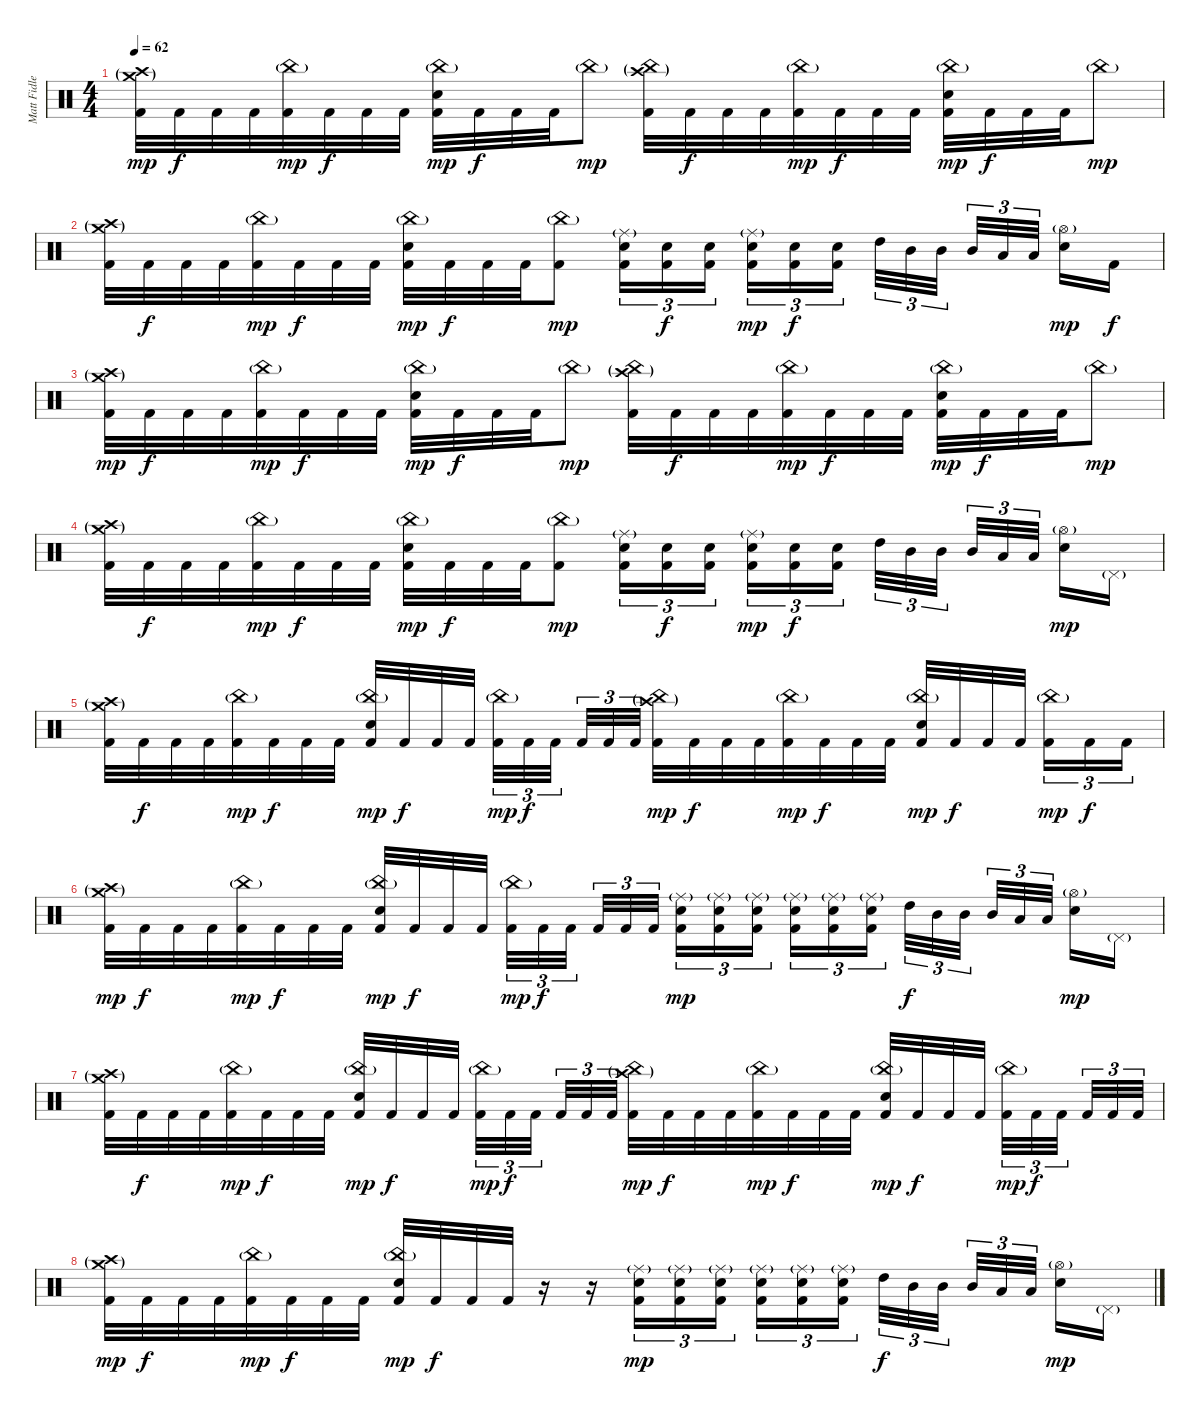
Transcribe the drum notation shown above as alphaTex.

\track ("Matt Fidler---Drums" "Matt Fidle") {instrument percussion}
\staff {score}
\articulation defaults
\ts (4 4)
\tempo 62
\clef neutral
\ks c
("Crash medium (hit)"{g} "Crash high (hit)"{g} "Kick (hit) 2").32{dy mp volume 16} "Kick (hit) 2".32{dy f} "Kick (hit) 2".32 "Kick (hit) 2".32 ("China (hit)"{g} "Kick (hit) 2").32{dy mp} "Kick (hit) 2".32{dy f} "Kick (hit) 2".32 "Kick (hit) 2".32 ("China (hit)"{g} "Electric Snare (hit)" "Kick (hit) 2").32{dy mp} "Kick (hit) 2".32{dy f} "Kick (hit) 2".32 "Kick (hit) 2".32 "China (hit)"{g}.8{dy mp} ("China (hit)"{g} "Crash high (hit)"{g} "Kick (hit) 2").32 "Kick (hit) 2".32{dy f} "Kick (hit) 2".32 "Kick (hit) 2".32 ("China (hit)"{g} "Kick (hit) 2").32{dy mp} "Kick (hit) 2".32{dy f} "Kick (hit) 2".32 "Kick (hit) 2".32 ("China (hit)"{g} "Electric Snare (hit)" "Kick (hit) 2").32{dy mp} "Kick (hit) 2".32{dy f} "Kick (hit) 2".32 "Kick (hit) 2".32 "China (hit)"{g}.8{dy mp} |
("Crash medium (hit)"{g} "Crash high (hit)"{g} "Kick (hit) 2").32 "Kick (hit) 2".32{dy f} "Kick (hit) 2".32 "Kick (hit) 2".32 ("China (hit)"{g} "Kick (hit) 2").32{dy mp} "Kick (hit) 2".32{dy f} "Kick (hit) 2".32 "Kick (hit) 2".32 ("China (hit)"{g} "Electric Snare (hit)" "Kick (hit) 2").32{dy mp} "Kick (hit) 2".32{dy f} "Kick (hit) 2".32 "Kick (hit) 2".32 ("China (hit)"{g} "Kick (hit) 2").8{dy mp} ("Ride (middle)"{g} "Electric Snare (hit)" "Kick (hit) 2").16{tu (3 2)} ("Electric Snare (hit)" "Kick (hit) 2").16{tu (3 2) dy f} ("Electric Snare (hit)" "Kick (hit) 2").16{tu (3 2) beam splitsecondary} ("Ride (middle)"{g} "Electric Snare (hit)" "Kick (hit) 2").16{tu (3 2) dy mp} ("Electric Snare (hit)" "Kick (hit) 2").16{tu (3 2) dy f} ("Electric Snare (hit)" "Kick (hit) 2").16{tu (3 2)} "High Tom (hit)".32{tu (3 2)} "Mid Tom (hit)".32{tu (3 2)} "Mid Tom (hit)".32{tu (3 2) beam splitsecondary} "Mid Tom (hit)".32{tu (3 2)} "Low Tom (hit)".32{tu (3 2)} "Low Tom (hit)".32{tu (3 2) beam splitsecondary} ("Hi-Hat (open)"{g} "Electric Snare (hit)").16{dy mp} "Kick (hit) 2".16{dy f} |
("Crash medium (hit)"{g} "Crash high (hit)"{g} "Kick (hit) 2").32{dy mp} "Kick (hit) 2".32{dy f} "Kick (hit) 2".32 "Kick (hit) 2".32 ("China (hit)"{g} "Kick (hit) 2").32{dy mp} "Kick (hit) 2".32{dy f} "Kick (hit) 2".32 "Kick (hit) 2".32 ("China (hit)"{g} "Electric Snare (hit)" "Kick (hit) 2").32{dy mp} "Kick (hit) 2".32{dy f} "Kick (hit) 2".32 "Kick (hit) 2".32 "China (hit)"{g}.8{dy mp} ("China (hit)"{g} "Crash high (hit)"{g} "Kick (hit) 2").32 "Kick (hit) 2".32{dy f} "Kick (hit) 2".32 "Kick (hit) 2".32 ("China (hit)"{g} "Kick (hit) 2").32{dy mp} "Kick (hit) 2".32{dy f} "Kick (hit) 2".32 "Kick (hit) 2".32 ("China (hit)"{g} "Electric Snare (hit)" "Kick (hit) 2").32{dy mp} "Kick (hit) 2".32{dy f} "Kick (hit) 2".32 "Kick (hit) 2".32 "China (hit)"{g}.8{dy mp} |
("Crash medium (hit)"{g} "Crash high (hit)"{g} "Kick (hit) 2").32 "Kick (hit) 2".32{dy f} "Kick (hit) 2".32 "Kick (hit) 2".32 ("China (hit)"{g} "Kick (hit) 2").32{dy mp} "Kick (hit) 2".32{dy f} "Kick (hit) 2".32 "Kick (hit) 2".32 ("China (hit)"{g} "Electric Snare (hit)" "Kick (hit) 2").32{dy mp} "Kick (hit) 2".32{dy f} "Kick (hit) 2".32 "Kick (hit) 2".32 ("China (hit)"{g} "Kick (hit) 2").8{dy mp} ("Ride (middle)"{g} "Electric Snare (hit)" "Kick (hit) 2").16{tu (3 2)} ("Electric Snare (hit)" "Kick (hit) 2").16{tu (3 2) dy f} ("Electric Snare (hit)" "Kick (hit) 2").16{tu (3 2) beam splitsecondary} ("Ride (middle)"{g} "Electric Snare (hit)" "Kick (hit) 2").16{tu (3 2) dy mp} ("Electric Snare (hit)" "Kick (hit) 2").16{tu (3 2) dy f} ("Electric Snare (hit)" "Kick (hit) 2").16{tu (3 2)} "High Tom (hit)".32{tu (3 2)} "Mid Tom (hit)".32{tu (3 2)} "Mid Tom (hit)".32{tu (3 2) beam splitsecondary} "Mid Tom (hit)".32{tu (3 2)} "Low Tom (hit)".32{tu (3 2)} "Low Tom (hit)".32{tu (3 2) beam splitsecondary} ("Hi-Hat (open)"{g} "Electric Snare (hit)").16{dy mp} "Pedal Hi-Hat (hit)"{g}.16{volume 8} |
("Crash medium (hit)"{g} "Crash high (hit)"{g} "Kick (hit) 2").32{volume 16} "Kick (hit) 2".32{dy f} "Kick (hit) 2".32 "Kick (hit) 2".32 ("China (hit)"{g} "Kick (hit) 2").32{dy mp} "Kick (hit) 2".32{dy f} "Kick (hit) 2".32 "Kick (hit) 2".32 ("China (hit)"{g} "Electric Snare (hit)" "Kick (hit) 2").32{dy mp} "Kick (hit) 2".32{dy f} "Kick (hit) 2".32 "Kick (hit) 2".32{beam splitsecondary} ("China (hit)"{g} "Kick (hit) 2").32{tu (3 2) dy mp} "Kick (hit) 2".32{tu (3 2) dy f} "Kick (hit) 2".32{tu (3 2) beam splitsecondary} "Kick (hit) 2".32{tu (3 2)} "Kick (hit) 2".32{tu (3 2)} "Kick (hit) 2".32{tu (3 2)} ("China (hit)"{g} "Crash high (hit)"{g} "Kick (hit) 2").32{dy mp} "Kick (hit) 2".32{dy f} "Kick (hit) 2".32 "Kick (hit) 2".32 ("China (hit)"{g} "Kick (hit) 2").32{dy mp} "Kick (hit) 2".32{dy f} "Kick (hit) 2".32 "Kick (hit) 2".32 ("China (hit)"{g} "Electric Snare (hit)" "Kick (hit) 2").32{dy mp} "Kick (hit) 2".32{dy f} "Kick (hit) 2".32 "Kick (hit) 2".32{beam splitsecondary} ("China (hit)"{g} "Kick (hit) 2").16{tu (3 2) dy mp} "Kick (hit) 2".16{tu (3 2) dy f} "Kick (hit) 2".16{tu (3 2)} |
("Crash medium (hit)"{g} "Crash high (hit)"{g} "Kick (hit) 2").32{dy mp} "Kick (hit) 2".32{dy f} "Kick (hit) 2".32 "Kick (hit) 2".32 ("China (hit)"{g} "Kick (hit) 2").32{dy mp} "Kick (hit) 2".32{dy f} "Kick (hit) 2".32 "Kick (hit) 2".32 ("China (hit)"{g} "Electric Snare (hit)" "Kick (hit) 2").32{dy mp} "Kick (hit) 2".32{dy f} "Kick (hit) 2".32 "Kick (hit) 2".32{beam splitsecondary} ("China (hit)"{g} "Kick (hit) 2").32{tu (3 2) dy mp} "Kick (hit) 2".32{tu (3 2) dy f} "Kick (hit) 2".32{tu (3 2) beam splitsecondary} "Kick (hit) 2".32{tu (3 2)} "Kick (hit) 2".32{tu (3 2)} "Kick (hit) 2".32{tu (3 2)} ("Ride (middle)"{g} "Electric Snare (hit)" "Kick (hit) 2").16{tu (3 2) dy mp} ("Ride (middle)"{g} "Electric Snare (hit)" "Kick (hit) 2").16{tu (3 2)} ("Ride (middle)"{g} "Electric Snare (hit)" "Kick (hit) 2").16{tu (3 2) beam splitsecondary} ("Ride (middle)"{g} "Electric Snare (hit)" "Kick (hit) 2").16{tu (3 2)} ("Ride (middle)"{g} "Electric Snare (hit)" "Kick (hit) 2").16{tu (3 2)} ("Ride (middle)"{g} "Electric Snare (hit)" "Kick (hit) 2").16{tu (3 2)} "High Tom (hit)".32{tu (3 2) dy f} "Mid Tom (hit)".32{tu (3 2)} "Mid Tom (hit)".32{tu (3 2) beam splitsecondary} "Mid Tom (hit)".32{tu (3 2)} "Low Tom (hit)".32{tu (3 2)} "Low Tom (hit)".32{tu (3 2) beam splitsecondary} ("Hi-Hat (open)"{g} "Electric Snare (hit)").16{dy mp} "Pedal Hi-Hat (hit)"{g}.16{volume 6} |
("Crash medium (hit)"{g} "Crash high (hit)"{g} "Kick (hit) 2").32{volume 16} "Kick (hit) 2".32{dy f} "Kick (hit) 2".32 "Kick (hit) 2".32 ("China (hit)"{g} "Kick (hit) 2").32{dy mp} "Kick (hit) 2".32{dy f} "Kick (hit) 2".32 "Kick (hit) 2".32 ("China (hit)"{g} "Electric Snare (hit)" "Kick (hit) 2").32{dy mp} "Kick (hit) 2".32{dy f} "Kick (hit) 2".32 "Kick (hit) 2".32{beam splitsecondary} ("China (hit)"{g} "Kick (hit) 2").32{tu (3 2) dy mp} "Kick (hit) 2".32{tu (3 2) dy f} "Kick (hit) 2".32{tu (3 2) beam splitsecondary} "Kick (hit) 2".32{tu (3 2)} "Kick (hit) 2".32{tu (3 2)} "Kick (hit) 2".32{tu (3 2)} ("China (hit)"{g} "Crash high (hit)"{g} "Kick (hit) 2").32{dy mp} "Kick (hit) 2".32{dy f} "Kick (hit) 2".32 "Kick (hit) 2".32 ("China (hit)"{g} "Kick (hit) 2").32{dy mp} "Kick (hit) 2".32{dy f} "Kick (hit) 2".32 "Kick (hit) 2".32 ("China (hit)"{g} "Electric Snare (hit)" "Kick (hit) 2").32{dy mp} "Kick (hit) 2".32{dy f} "Kick (hit) 2".32 "Kick (hit) 2".32{beam splitsecondary} ("China (hit)"{g} "Kick (hit) 2").32{tu (3 2) dy mp} "Kick (hit) 2".32{tu (3 2) dy f} "Kick (hit) 2".32{tu (3 2) beam splitsecondary} "Kick (hit) 2".32{tu (3 2)} "Kick (hit) 2".32{tu (3 2)} "Kick (hit) 2".32{tu (3 2)} |
("Crash medium (hit)"{g} "Crash high (hit)"{g} "Kick (hit) 2").32{dy mp} "Kick (hit) 2".32{dy f} "Kick (hit) 2".32 "Kick (hit) 2".32 ("China (hit)"{g} "Kick (hit) 2").32{dy mp} "Kick (hit) 2".32{dy f} "Kick (hit) 2".32 "Kick (hit) 2".32 ("China (hit)"{g} "Electric Snare (hit)" "Kick (hit) 2").32{dy mp} "Kick (hit) 2".32{dy f} "Kick (hit) 2".32 "Kick (hit) 2".32 r.16{volume 0} r.16 ("Ride (middle)"{g} "Electric Snare (hit)" "Kick (hit) 2").16{tu (3 2) dy mp volume 16} ("Ride (middle)"{g} "Electric Snare (hit)" "Kick (hit) 2").16{tu (3 2)} ("Ride (middle)"{g} "Electric Snare (hit)" "Kick (hit) 2").16{tu (3 2) beam splitsecondary} ("Ride (middle)"{g} "Electric Snare (hit)" "Kick (hit) 2").16{tu (3 2)} ("Ride (middle)"{g} "Electric Snare (hit)" "Kick (hit) 2").16{tu (3 2)} ("Ride (middle)"{g} "Electric Snare (hit)" "Kick (hit) 2").16{tu (3 2)} "High Tom (hit)".32{tu (3 2) dy f} "Mid Tom (hit)".32{tu (3 2)} "Mid Tom (hit)".32{tu (3 2) beam splitsecondary} "Mid Tom (hit)".32{tu (3 2)} "Low Tom (hit)".32{tu (3 2)} "Low Tom (hit)".32{tu (3 2) beam splitsecondary} ("Hi-Hat (open)"{g} "Electric Snare (hit)").16{dy mp} "Pedal Hi-Hat (hit)"{g}.16{volume 6}
